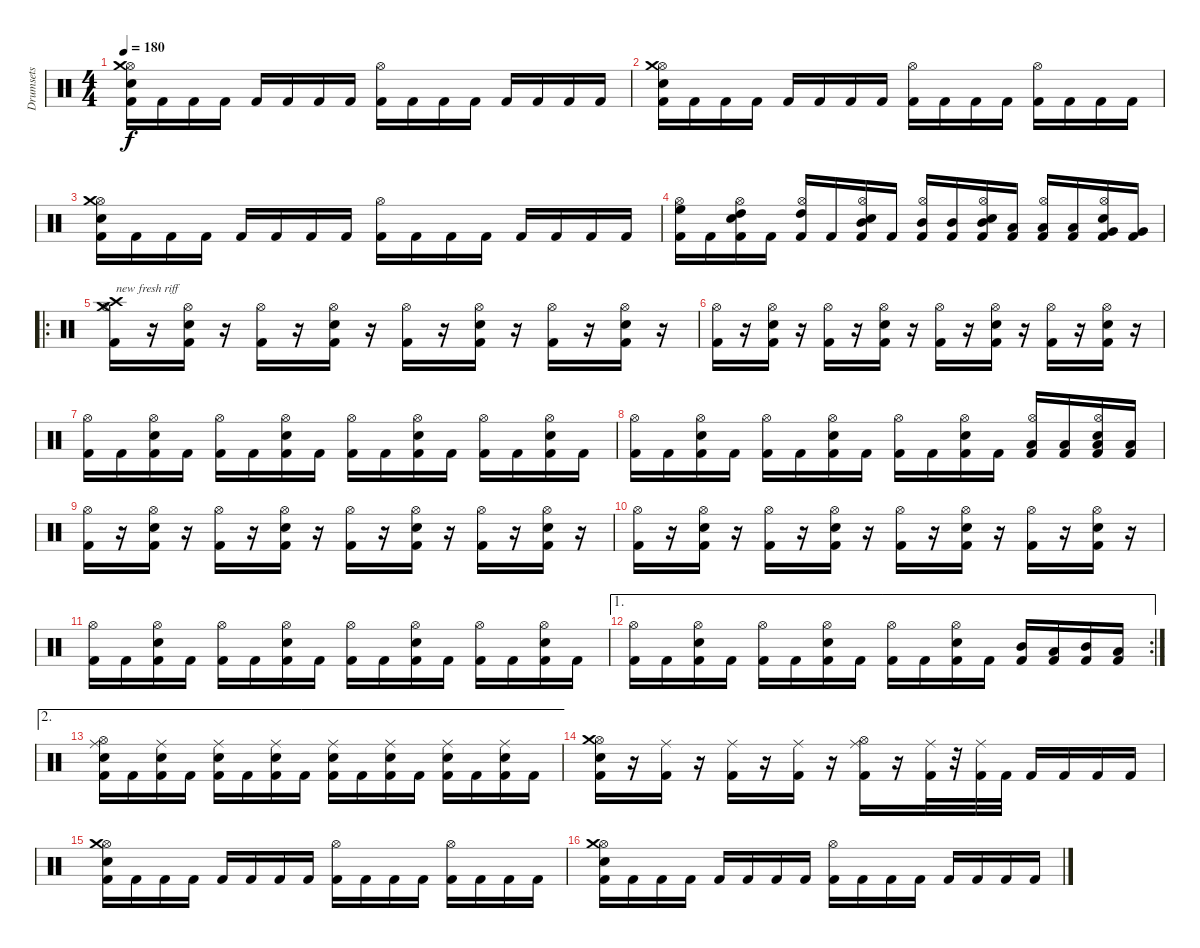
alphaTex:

\track ("Drumsets" "Drumsets") {instrument percussion}
\staff {score}
\articulation defaults
\ts (4 4)
\tempo 180
\clef neutral
\ks c
("Kick (hit) 2" "Snare (hit) 2" "Hi-Hat (open)" "Crash medium (hit)").16{dy f} "Kick (hit) 2".16 "Kick (hit) 2".16 "Kick (hit) 2".16 "Kick (hit) 2".16 "Kick (hit) 2".16 "Kick (hit) 2".16 "Kick (hit) 2".16 ("Kick (hit) 2" "Hi-Hat (open)").16 "Kick (hit) 2".16 "Kick (hit) 2".16 "Kick (hit) 2".16 "Kick (hit) 2".16 "Kick (hit) 2".16 "Kick (hit) 2".16 "Kick (hit) 2".16 |
("Kick (hit) 2" "Snare (hit) 2" "Hi-Hat (open)" "Crash medium (hit)").16 "Kick (hit) 2".16 "Kick (hit) 2".16 "Kick (hit) 2".16 "Kick (hit) 2".16 "Kick (hit) 2".16 "Kick (hit) 2".16 "Kick (hit) 2".16 ("Kick (hit) 2" "Hi-Hat (open)").16 "Kick (hit) 2".16 "Kick (hit) 2".16 "Kick (hit) 2".16 ("Kick (hit) 2" "Hi-Hat (open)").16 "Kick (hit) 2".16 "Kick (hit) 2".16 "Kick (hit) 2".16 |
("Kick (hit) 2" "Snare (hit) 2" "Hi-Hat (open)" "Crash medium (hit)").16 "Kick (hit) 2".16 "Kick (hit) 2".16 "Kick (hit) 2".16 "Kick (hit) 2".16 "Kick (hit) 2".16 "Kick (hit) 2".16 "Kick (hit) 2".16 ("Kick (hit) 2" "Hi-Hat (open)").16 "Kick (hit) 2".16 "Kick (hit) 2".16 "Kick (hit) 2".16 "Kick (hit) 2".16 "Kick (hit) 2".16 "Kick (hit) 2".16 "Kick (hit) 2".16 |
("Kick (hit) 2" "Hi-Hat (open)" "High Floor Tom (hit)").16 "Kick (hit) 2".16 ("Kick (hit) 2" "Snare (hit) 2" "Hi-Hat (open)" "High Tom (hit)").16 "Kick (hit) 2".16 ("Kick (hit) 2" "Hi-Hat (open)" "High Tom (hit)").16 "Kick (hit) 2".16 ("Kick (hit) 2" "Snare (hit) 2" "Hi-Hat (open)" "Mid Tom (hit)").16 "Kick (hit) 2".16 ("Kick (hit) 2" "Hi-Hat (open)" "Mid Tom (hit)").16 ("Kick (hit) 2" "Mid Tom (hit)").16 ("Kick (hit) 2" "Snare (hit) 2" "Hi-Hat (open)" "Mid Tom (hit)").16 ("Kick (hit) 2" "Low Tom (hit)").16 ("Kick (hit) 2" "Hi-Hat (open)" "Low Tom (hit)").16 ("Kick (hit) 2" "Low Tom (hit)").16 ("Kick (hit) 2" "Snare (hit) 2" "Hi-Hat (open)" "Very Low Tom (hit)").16 ("Kick (hit) 2" "Very Low Tom (hit)").16 |
\ro
("Kick (hit) 2" "Hi-Hat (open)" "Crash medium (hit)" "Crash high (hit)").16{txt "new fresh riff"} r.16 ("Kick (hit) 2" "Snare (hit) 2" "Hi-Hat (open)").16 r.16 ("Kick (hit) 2" "Hi-Hat (open)").16 r.16 ("Kick (hit) 2" "Snare (hit) 2" "Hi-Hat (open)").16 r.16 ("Kick (hit) 2" "Hi-Hat (open)").16 r.16 ("Kick (hit) 2" "Snare (hit) 2" "Hi-Hat (open)").16 r.16 ("Kick (hit) 2" "Hi-Hat (open)").16 r.16 ("Kick (hit) 2" "Snare (hit) 2" "Hi-Hat (open)").16 r.16 |
("Kick (hit) 2" "Hi-Hat (open)").16 r.16 ("Kick (hit) 2" "Snare (hit) 2" "Hi-Hat (open)").16 r.16 ("Kick (hit) 2" "Hi-Hat (open)").16 r.16 ("Kick (hit) 2" "Snare (hit) 2" "Hi-Hat (open)").16 r.16 ("Kick (hit) 2" "Hi-Hat (open)").16 r.16 ("Kick (hit) 2" "Snare (hit) 2" "Hi-Hat (open)").16 r.16 ("Kick (hit) 2" "Hi-Hat (open)").16 r.16 ("Kick (hit) 2" "Snare (hit) 2" "Hi-Hat (open)").16 r.16 |
("Kick (hit) 2" "Hi-Hat (open)").16 "Kick (hit) 2".16 ("Kick (hit) 2" "Snare (hit) 2" "Hi-Hat (open)").16 "Kick (hit) 2".16 ("Kick (hit) 2" "Hi-Hat (open)").16 "Kick (hit) 2".16 ("Kick (hit) 2" "Snare (hit) 2" "Hi-Hat (open)").16 "Kick (hit) 2".16 ("Kick (hit) 2" "Hi-Hat (open)").16 "Kick (hit) 2".16 ("Kick (hit) 2" "Snare (hit) 2" "Hi-Hat (open)").16 "Kick (hit) 2".16 ("Kick (hit) 2" "Hi-Hat (open)").16 "Kick (hit) 2".16 ("Kick (hit) 2" "Snare (hit) 2" "Hi-Hat (open)").16 "Kick (hit) 2".16 |
("Kick (hit) 2" "Hi-Hat (open)").16 "Kick (hit) 2".16 ("Kick (hit) 2" "Snare (hit) 2" "Hi-Hat (open)").16 "Kick (hit) 2".16 ("Kick (hit) 2" "Hi-Hat (open)").16 "Kick (hit) 2".16 ("Kick (hit) 2" "Snare (hit) 2" "Hi-Hat (open)").16 "Kick (hit) 2".16 ("Kick (hit) 2" "Hi-Hat (open)").16 "Kick (hit) 2".16 ("Kick (hit) 2" "Snare (hit) 2" "Hi-Hat (open)").16 "Kick (hit) 2".16 ("Kick (hit) 2" "Hi-Hat (open)" "Low Tom (hit)").16 ("Kick (hit) 2" "Low Tom (hit)").16 ("Kick (hit) 2" "Snare (hit) 2" "Hi-Hat (open)" "Low Tom (hit)").16 ("Kick (hit) 2" "Low Tom (hit)").16 |
("Kick (hit) 2" "Hi-Hat (open)").16 r.16 ("Kick (hit) 2" "Snare (hit) 2" "Hi-Hat (open)").16 r.16 ("Kick (hit) 2" "Hi-Hat (open)").16 r.16 ("Kick (hit) 2" "Snare (hit) 2" "Hi-Hat (open)").16 r.16 ("Kick (hit) 2" "Hi-Hat (open)").16 r.16 ("Kick (hit) 2" "Snare (hit) 2" "Hi-Hat (open)").16 r.16 ("Kick (hit) 2" "Hi-Hat (open)").16 r.16 ("Kick (hit) 2" "Snare (hit) 2" "Hi-Hat (open)").16 r.16 |
("Kick (hit) 2" "Hi-Hat (open)").16 r.16 ("Kick (hit) 2" "Snare (hit) 2" "Hi-Hat (open)").16 r.16 ("Kick (hit) 2" "Hi-Hat (open)").16 r.16 ("Kick (hit) 2" "Snare (hit) 2" "Hi-Hat (open)").16 r.16 ("Kick (hit) 2" "Hi-Hat (open)").16 r.16 ("Kick (hit) 2" "Snare (hit) 2" "Hi-Hat (open)").16 r.16 ("Kick (hit) 2" "Hi-Hat (open)").16 r.16 ("Kick (hit) 2" "Snare (hit) 2" "Hi-Hat (open)").16 r.16 |
("Kick (hit) 2" "Hi-Hat (open)").16 "Kick (hit) 2".16 ("Kick (hit) 2" "Snare (hit) 2" "Hi-Hat (open)").16 "Kick (hit) 2".16 ("Kick (hit) 2" "Hi-Hat (open)").16 "Kick (hit) 2".16 ("Kick (hit) 2" "Snare (hit) 2" "Hi-Hat (open)").16 "Kick (hit) 2".16 ("Kick (hit) 2" "Hi-Hat (open)").16 "Kick (hit) 2".16 ("Kick (hit) 2" "Snare (hit) 2" "Hi-Hat (open)").16 "Kick (hit) 2".16 ("Kick (hit) 2" "Hi-Hat (open)").16 "Kick (hit) 2".16 ("Kick (hit) 2" "Snare (hit) 2" "Hi-Hat (open)").16 "Kick (hit) 2".16 |
\ae 1
\rc 2
("Kick (hit) 2" "Hi-Hat (open)").16 "Kick (hit) 2".16 ("Kick (hit) 2" "Snare (hit) 2" "Hi-Hat (open)").16 "Kick (hit) 2".16 ("Kick (hit) 2" "Hi-Hat (open)").16 "Kick (hit) 2".16 ("Kick (hit) 2" "Snare (hit) 2" "Hi-Hat (open)").16 "Kick (hit) 2".16 ("Kick (hit) 2" "Hi-Hat (open)").16 "Kick (hit) 2".16 ("Kick (hit) 2" "Snare (hit) 2" "Hi-Hat (open)").16 "Kick (hit) 2".16 ("Kick (hit) 2" "Mid Tom (hit)").16 ("Kick (hit) 2" "Low Tom (hit)").16 ("Kick (hit) 2" "Mid Tom (hit)").16 ("Kick (hit) 2" "Low Tom (hit)").16 |
\ae 2
("Kick (hit) 2" "Snare (hit) 2" "Hi-Hat (open)" "Ride (middle)").16 "Kick (hit) 2".16 ("Kick (hit) 2" "Snare (hit) 2" "Ride (middle)").16 "Kick (hit) 2".16 ("Kick (hit) 2" "Snare (hit) 2" "Ride (middle)").16 "Kick (hit) 2".16 ("Kick (hit) 2" "Snare (hit) 2" "Ride (middle)").16 "Kick (hit) 2".16 ("Kick (hit) 2" "Snare (hit) 2" "Ride (middle)").16 "Kick (hit) 2".16 ("Kick (hit) 2" "Snare (hit) 2" "Ride (middle)").16 "Kick (hit) 2".16 ("Kick (hit) 2" "Snare (hit) 2" "Ride (middle)").16 "Kick (hit) 2".16 ("Kick (hit) 2" "Snare (hit) 2" "Ride (middle)").16 "Kick (hit) 2".16 |
("Kick (hit) 2" "Snare (hit) 2" "Hi-Hat (open)" "Crash medium (hit)").16 r.16 ("Kick (hit) 2" "Ride (middle)").16 r.16 ("Kick (hit) 2" "Ride (middle)").16 r.16 ("Kick (hit) 2" "Ride (middle)").16 r.16 ("Kick (hit) 2" "Hi-Hat (open)" "Ride (middle)").16 r.16 ("Kick (hit) 2" "Ride (middle)").32 r.32 ("Ride (middle)" "Kick (hit) 2").32 "Kick (hit) 2".32 "Kick (hit) 2".16 "Kick (hit) 2".16 "Kick (hit) 2".16 "Kick (hit) 2".16 |
("Kick (hit) 2" "Snare (hit) 2" "Hi-Hat (open)" "Crash medium (hit)").16 "Kick (hit) 2".16 "Kick (hit) 2".16 "Kick (hit) 2".16 "Kick (hit) 2".16 "Kick (hit) 2".16 "Kick (hit) 2".16 "Kick (hit) 2".16 ("Kick (hit) 2" "Hi-Hat (open)").16 "Kick (hit) 2".16 "Kick (hit) 2".16 "Kick (hit) 2".16 ("Kick (hit) 2" "Hi-Hat (open)").16 "Kick (hit) 2".16 "Kick (hit) 2".16 "Kick (hit) 2".16 |
("Kick (hit) 2" "Snare (hit) 2" "Hi-Hat (open)" "Crash medium (hit)").16 "Kick (hit) 2".16 "Kick (hit) 2".16 "Kick (hit) 2".16 "Kick (hit) 2".16 "Kick (hit) 2".16 "Kick (hit) 2".16 "Kick (hit) 2".16 ("Kick (hit) 2" "Hi-Hat (open)").16 "Kick (hit) 2".16 "Kick (hit) 2".16 "Kick (hit) 2".16 "Kick (hit) 2".16 "Kick (hit) 2".16 "Kick (hit) 2".16 "Kick (hit) 2".16
